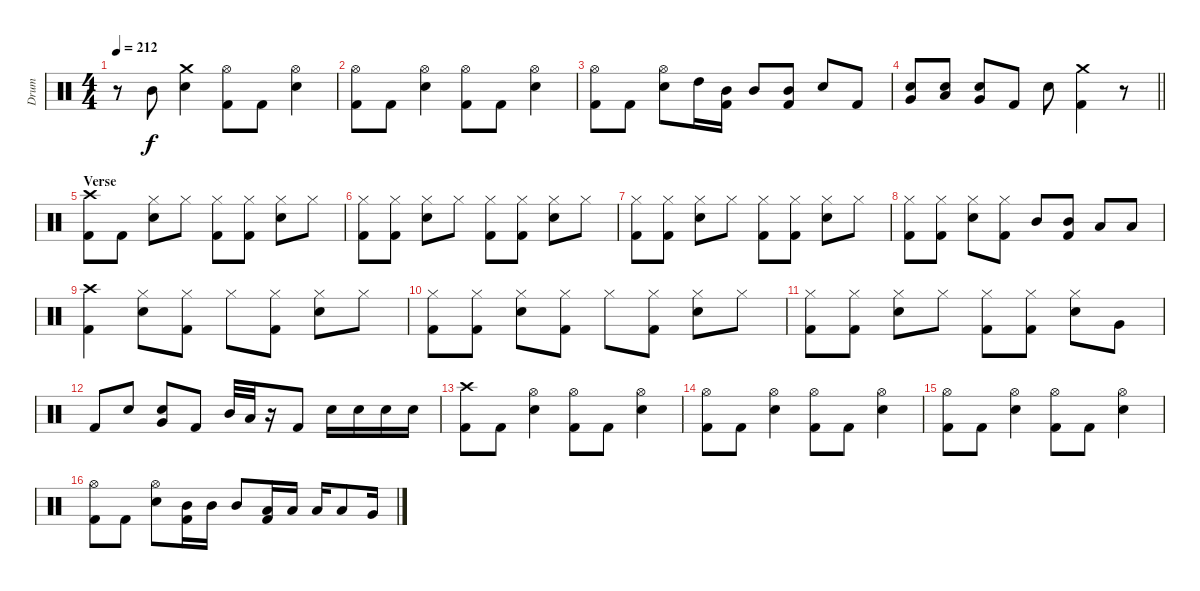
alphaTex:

\track ("Drum" "Drum") {instrument percussion}
\staff {score}
\articulation defaults
\ts (4 4)
\tempo 212
\clef neutral
\ks c
r.8{dy f} "Mid Tom (hit)".8 ("Crash medium (hit)" "Electric Snare (hit)").4 ("Hi-Hat (open)" "Kick (hit) 2").8 "Kick (hit) 2".8 ("Hi-Hat (open)" "Electric Snare (hit)").4 |
("Hi-Hat (open)" "Kick (hit) 2").8 "Kick (hit) 2".8 ("Hi-Hat (open)" "Electric Snare (hit)").4 ("Hi-Hat (open)" "Kick (hit) 2").8 "Kick (hit) 2".8 ("Hi-Hat (open)" "Electric Snare (hit)").4 |
("Hi-Hat (open)" "Kick (hit) 2").8 "Kick (hit) 2".8 ("Hi-Hat (open)" "Electric Snare (hit)").8 "High Tom (hit)".16 ("Mid Tom (hit)" "Kick (hit) 2").16 "Mid Tom (hit)".8 ("Mid Tom (hit)" "Kick (hit) 2").8 "Electric Snare (hit)".8 "Kick (hit) 2".8 |
\barLineRight lightlight
("Very Low Tom (hit)" "Electric Snare (hit)").8 ("Low Tom (hit)" "Electric Snare (hit)").8 ("Very Low Tom (hit)" "Electric Snare (hit)").8 "Kick (hit) 2".8 "Electric Snare (hit)".8 ("Crash medium (hit)" "Kick (hit) 2").4 r.8 |
\section ("" "Verse")
("Crash high (hit)" "Kick (hit) 2").8 "Kick (hit) 2".8 ("Hi-Hat (closed)" "Electric Snare (hit)").8 "Hi-Hat (closed)".8 ("Hi-Hat (closed)" "Kick (hit) 2").8 ("Hi-Hat (closed)" "Kick (hit) 2").8 ("Hi-Hat (closed)" "Electric Snare (hit)").8 "Hi-Hat (closed)".8 |
("Hi-Hat (closed)" "Kick (hit) 2").8 ("Hi-Hat (closed)" "Kick (hit) 2").8 ("Hi-Hat (closed)" "Electric Snare (hit)").8 "Hi-Hat (closed)".8 ("Hi-Hat (closed)" "Kick (hit) 2").8 ("Hi-Hat (closed)" "Kick (hit) 2").8 ("Hi-Hat (closed)" "Electric Snare (hit)").8 "Hi-Hat (closed)".8 |
("Hi-Hat (closed)" "Kick (hit) 2").8 ("Hi-Hat (closed)" "Kick (hit) 2").8 ("Hi-Hat (closed)" "Electric Snare (hit)").8 "Hi-Hat (closed)".8 ("Hi-Hat (closed)" "Kick (hit) 2").8 ("Hi-Hat (closed)" "Kick (hit) 2").8 ("Hi-Hat (closed)" "Electric Snare (hit)").8 "Hi-Hat (closed)".8 |
("Hi-Hat (closed)" "Kick (hit) 2").8 ("Hi-Hat (closed)" "Kick (hit) 2").8 ("Hi-Hat (closed)" "Electric Snare (hit)").8 ("Hi-Hat (closed)" "Kick (hit) 2").8 "Mid Tom (hit)".8 ("Mid Tom (hit)" "Kick (hit) 2").8 "Low Tom (hit)".8 "Low Tom (hit)".8 |
("Crash high (hit)" "Kick (hit) 2").4 ("Hi-Hat (closed)" "Electric Snare (hit)").8 ("Hi-Hat (closed)" "Kick (hit) 2").8 "Hi-Hat (closed)".8 ("Hi-Hat (closed)" "Kick (hit) 2").8 ("Hi-Hat (closed)" "Electric Snare (hit)").8 "Hi-Hat (closed)".8 |
("Hi-Hat (closed)" "Kick (hit) 2").8 ("Hi-Hat (closed)" "Kick (hit) 2").8 ("Hi-Hat (closed)" "Electric Snare (hit)").8 ("Hi-Hat (closed)" "Kick (hit) 2").8 "Hi-Hat (closed)".8 ("Hi-Hat (closed)" "Kick (hit) 2").8 ("Hi-Hat (closed)" "Electric Snare (hit)").8 "Hi-Hat (closed)".8 |
("Hi-Hat (closed)" "Kick (hit) 2").8 ("Hi-Hat (closed)" "Kick (hit) 2").8 ("Hi-Hat (closed)" "Electric Snare (hit)").8 "Hi-Hat (closed)".8 ("Hi-Hat (closed)" "Kick (hit) 2").8 ("Hi-Hat (closed)" "Kick (hit) 2").8 ("Hi-Hat (closed)" "Electric Snare (hit)").8 "Very Low Tom (hit)".8 |
"Kick (hit) 2".8 "Electric Snare (hit)".8 ("Very Low Tom (hit)" "Electric Snare (hit)").8 "Kick (hit) 2".8 "Mid Tom (hit)".32 "Low Tom (hit)".32 r.16 "Kick (hit) 2".8 "Electric Snare (hit)".16 "Electric Snare (hit)".16 "Electric Snare (hit)".16 "Electric Snare (hit)".16 |
("Crash high (hit)" "Kick (hit) 2").8 "Kick (hit) 2".8 ("Hi-Hat (open)" "Electric Snare (hit)").4 ("Hi-Hat (open)" "Kick (hit) 2").8 "Kick (hit) 2".8 ("Hi-Hat (open)" "Electric Snare (hit)").4 |
("Hi-Hat (open)" "Kick (hit) 2").8 "Kick (hit) 2".8 ("Hi-Hat (open)" "Electric Snare (hit)").4 ("Hi-Hat (open)" "Kick (hit) 2").8 "Kick (hit) 2".8 ("Hi-Hat (open)" "Electric Snare (hit)").4 |
("Hi-Hat (open)" "Kick (hit) 2").8 "Kick (hit) 2".8 ("Hi-Hat (open)" "Electric Snare (hit)").4 ("Hi-Hat (open)" "Kick (hit) 2").8 "Kick (hit) 2".8 ("Hi-Hat (open)" "Electric Snare (hit)").4 |
("Hi-Hat (open)" "Kick (hit) 2").8 "Kick (hit) 2".8 ("Hi-Hat (open)" "Electric Snare (hit)").8 ("Mid Tom (hit)" "Kick (hit) 2").16 "Mid Tom (hit)".16 "Mid Tom (hit)".8 ("Low Tom (hit)" "Kick (hit) 2").16 "Low Tom (hit)".16 "Low Tom (hit)".16 "Low Tom (hit)".8 "Very Low Tom (hit)".16
